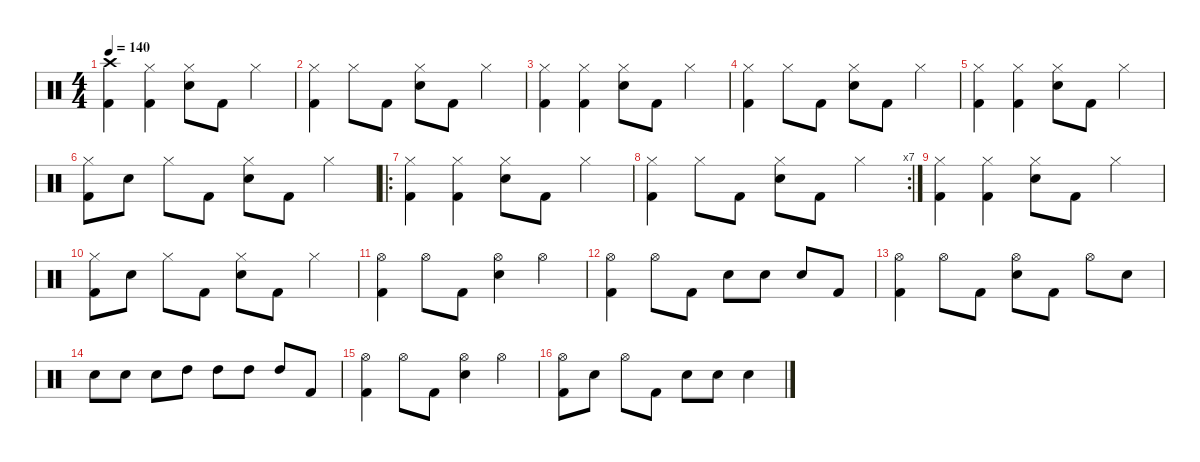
\defaultSystemsLayout 4
\hideDynamics
\bracketExtendMode nobrackets
\singleTrackTrackNamePolicy hidden
\multiTrackTrackNamePolicy hidden
\firstSystemTrackNameMode fullname
\firstSystemTrackNameOrientation horizontal
\otherSystemsTrackNameOrientation horizontal
\track ("Bill Ward" "drm.") {instrument percussion}
\staff {score}
\articulation defaults
\ts (4 4)
\beaming (8 2 2 2 2)
\tempo 140
\clef neutral
\ks c
("Crash high (hit)" "Kick (hit) 2").4{dy f beam Down} ("Hi-Hat (closed)" "Kick (hit) 2").4{beam Down} ("Hi-Hat (closed)" "Snare (hit) 2").8{beam Down} "Kick (hit) 2".8{beam Down} "Hi-Hat (closed)".4{beam Down} |
("Hi-Hat (closed)" "Kick (hit) 2").4{beam Down} "Hi-Hat (closed)".8{beam Down} "Kick (hit) 2".8{beam Down} ("Hi-Hat (closed)" "Snare (hit) 2").8{beam Down} "Kick (hit) 2".8{beam Down} "Hi-Hat (closed)".4{beam Down} |
("Hi-Hat (closed)" "Kick (hit) 2").4{beam Down} ("Hi-Hat (closed)" "Kick (hit) 2").4{beam Down} ("Hi-Hat (closed)" "Snare (hit) 2").8{beam Down} "Kick (hit) 2".8{beam Down} "Hi-Hat (closed)".4{beam Down} |
("Hi-Hat (closed)" "Kick (hit) 2").4{beam Down} "Hi-Hat (closed)".8{beam Down} "Kick (hit) 2".8{beam Down} ("Hi-Hat (closed)" "Snare (hit) 2").8{beam Down} "Kick (hit) 2".8{beam Down} "Hi-Hat (closed)".4{beam Down} |
("Hi-Hat (closed)" "Kick (hit) 2").4{beam Down} ("Hi-Hat (closed)" "Kick (hit) 2").4{beam Down} ("Hi-Hat (closed)" "Snare (hit) 2").8{beam Down} "Kick (hit) 2".8{beam Down} "Hi-Hat (closed)".4{beam Down} |
("Hi-Hat (closed)" "Kick (hit) 2").8{beam Down} "Snare (hit) 2".8{beam Down} "Hi-Hat (closed)".8{beam Down} "Kick (hit) 2".8{beam Down} ("Hi-Hat (closed)" "Snare (hit) 2").8{beam Down} "Kick (hit) 2".8{beam Down} "Hi-Hat (closed)".4{beam Down} |
\ro
("Hi-Hat (closed)" "Kick (hit) 2").4{beam Down} ("Hi-Hat (closed)" "Kick (hit) 2").4{beam Down} ("Hi-Hat (closed)" "Snare (hit) 2").8{beam Down} "Kick (hit) 2".8{beam Down} "Hi-Hat (closed)".4{beam Down} |
\rc 7
("Hi-Hat (closed)" "Kick (hit) 2").4{beam Down} "Hi-Hat (closed)".8{beam Down} "Kick (hit) 2".8{beam Down} ("Hi-Hat (closed)" "Snare (hit) 2").8{beam Down} "Kick (hit) 2".8{beam Down} "Hi-Hat (closed)".4{beam Down} |
("Hi-Hat (closed)" "Kick (hit) 2").4{beam Down} ("Hi-Hat (closed)" "Kick (hit) 2").4{beam Down} ("Hi-Hat (closed)" "Snare (hit) 2").8{beam Down} "Kick (hit) 2".8{beam Down} "Hi-Hat (closed)".4{beam Down} |
("Hi-Hat (closed)" "Kick (hit) 2").8{beam Down} "Snare (hit) 2".8{beam Down} "Hi-Hat (closed)".8{beam Down} "Kick (hit) 2".8{beam Down} ("Hi-Hat (closed)" "Snare (hit) 2").8{beam Down} "Kick (hit) 2".8{beam Down} "Hi-Hat (closed)".4{beam Down} |
("Hi-Hat (open)" "Kick (hit) 2").4{beam Down} "Hi-Hat (open)".8{beam Down} "Kick (hit) 2".8{beam Down} ("Hi-Hat (open)" "Snare (hit) 2").4{beam Down} "Hi-Hat (open)".4{beam Down} |
("Hi-Hat (open)" "Kick (hit) 2").4{beam Down} "Hi-Hat (open)".8{beam Down} "Kick (hit) 2".8{beam Down} "Snare (hit) 2".8{beam Down} "Snare (hit) 2".8{beam Down} "Snare (hit) 2".8{beam Up} "Kick (hit) 2".8{beam Up} |
("Hi-Hat (open)" "Kick (hit) 2").4{beam Down} "Hi-Hat (open)".8{beam Down} "Kick (hit) 2".8{beam Down} ("Hi-Hat (open)" "Snare (hit) 2").8{beam Down} "Kick (hit) 2".8{beam Down} "Hi-Hat (open)".8{beam Down} "Snare (hit) 2".8{beam Down} |
"Snare (hit) 2".8{beam Down} "Snare (hit) 2".8{beam Down} "Snare (hit) 2".8{beam Down} "High Tom (hit)".8{beam Down} "High Tom (hit)".8{beam Down} "High Tom (hit)".8{beam Down} "High Tom (hit)".8{beam Up} "Kick (hit) 2".8{beam Up} |
("Hi-Hat (open)" "Kick (hit) 2").4{beam Down} "Hi-Hat (open)".8{beam Down} "Kick (hit) 2".8{beam Down} ("Hi-Hat (open)" "Snare (hit) 2").4{beam Down} "Hi-Hat (open)".4{beam Down} |
("Hi-Hat (open)" "Kick (hit) 2").8{beam Down} "Snare (hit) 2".8{beam Down} "Hi-Hat (open)".8{beam Down} "Kick (hit) 2".8{beam Down} "Snare (hit) 2".8{beam Down} "Snare (hit) 2".8{beam Down} "Snare (hit) 2".4{beam Down}
